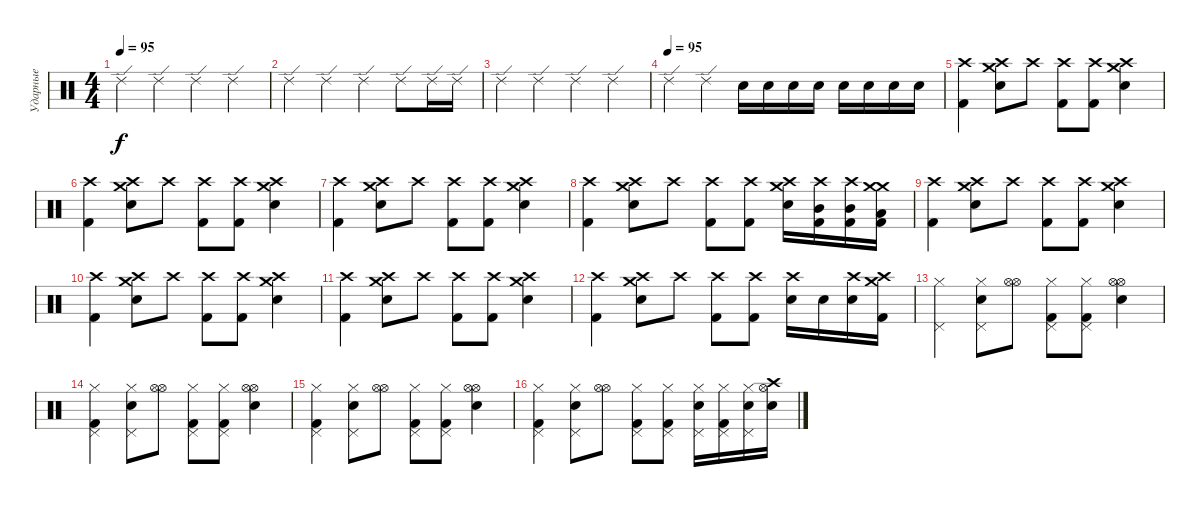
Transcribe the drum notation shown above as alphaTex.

\track ("Ударные" "Ударные") {instrument percussion}
\staff {score}
\articulation defaults
\ts (4 4)
\tempo 95
\clef neutral
\ks c "Ride (edge) 2".4{dy f} "Ride (edge) 2".4 "Ride (edge) 2".4 "Ride (edge) 2".4
|
"Ride (edge) 2".4 "Ride (edge) 2".4 "Ride (edge) 2".4 "Ride (edge) 2".8 "Ride (edge) 2".16 "Ride (edge) 2".16 |
"Ride (edge) 2".4 "Ride (edge) 2".4 "Ride (edge) 2".4 "Ride (edge) 2".4 |
\tempo (95)
"Ride (edge) 2".4 "Ride (edge) 2".4 "Electric Snare (hit)".16 "Electric Snare (hit)".16 "Electric Snare (hit)".16 "Electric Snare (hit)".16 "Electric Snare (hit)".16 "Electric Snare (hit)".16 "Electric Snare (hit)".16 "Electric Snare (hit)".16 |
("Crash high (hit)" "Kick (hit) 2").4 ("Crash high (hit)" "Crash medium (hit)" "Electric Snare (hit)").8 "Crash high (hit)".8 ("Crash high (hit)" "Kick (hit) 2").8 ("Crash high (hit)" "Kick (hit) 2").8 ("Crash high (hit)" "Crash medium (hit)" "Electric Snare (hit)").4 |
("Crash high (hit)" "Kick (hit) 2").4 ("Crash high (hit)" "Crash medium (hit)" "Electric Snare (hit)").8 "Crash high (hit)".8 ("Crash high (hit)" "Kick (hit) 2").8 ("Crash high (hit)" "Kick (hit) 2").8 ("Crash high (hit)" "Crash medium (hit)" "Electric Snare (hit)").4 |
("Crash high (hit)" "Kick (hit) 2").4 ("Crash high (hit)" "Crash medium (hit)" "Electric Snare (hit)").8 "Crash high (hit)".8 ("Crash high (hit)" "Kick (hit) 2").8 ("Crash high (hit)" "Kick (hit) 2").8 ("Crash high (hit)" "Crash medium (hit)" "Electric Snare (hit)").4 |
("Crash high (hit)" "Kick (hit) 2").4 ("Crash high (hit)" "Crash medium (hit)" "Electric Snare (hit)").8 "Crash high (hit)".8 ("Crash high (hit)" "Kick (hit) 2").8 ("Crash high (hit)" "Kick (hit) 2").8 ("Crash high (hit)" "Crash medium (hit)" "Electric Snare (hit)").16 ("Crash high (hit)" "Kick (hit) 2" "Mid Tom (hit)").16 ("Crash high (hit)" "Kick (hit) 2" "Mid Tom (hit)").16 ("Crash medium (hit)" "Crash medium (hit)" "Kick (hit) 2" "Low Tom (hit)").16 |
("Crash high (hit)" "Kick (hit) 2").4 ("Crash high (hit)" "Crash medium (hit)" "Electric Snare (hit)").8 "Crash high (hit)".8 ("Crash high (hit)" "Kick (hit) 2").8 ("Crash high (hit)" "Kick (hit) 2").8 ("Crash high (hit)" "Crash medium (hit)" "Electric Snare (hit)").4 |
("Crash high (hit)" "Kick (hit) 2").4 ("Crash high (hit)" "Crash medium (hit)" "Electric Snare (hit)").8 "Crash high (hit)".8 ("Crash high (hit)" "Kick (hit) 2").8 ("Crash high (hit)" "Kick (hit) 2").8 ("Crash high (hit)" "Crash medium (hit)" "Electric Snare (hit)").4 |
("Crash high (hit)" "Kick (hit) 2").4 ("Crash high (hit)" "Crash medium (hit)" "Electric Snare (hit)").8 "Crash high (hit)".8 ("Crash high (hit)" "Kick (hit) 2").8 ("Crash high (hit)" "Kick (hit) 2").8 ("Crash high (hit)" "Crash medium (hit)" "Electric Snare (hit)").4 |
("Crash high (hit)" "Kick (hit) 2").4 ("Crash high (hit)" "Crash medium (hit)" "Electric Snare (hit)").8 "Crash high (hit)".8 ("Crash high (hit)" "Kick (hit) 2").8 ("Crash high (hit)" "Kick (hit) 2").8 ("Crash high (hit)" "Electric Snare (hit)").16 "Electric Snare (hit)".16 ("Crash high (hit)" "Electric Snare (hit)").16 ("Crash high (hit)" "Crash medium (hit)" "Kick (hit) 2").16 |
("Pedal Hi-Hat (hit)" "Hi-Hat (closed)").4 ("Pedal Hi-Hat (hit)" "Hi-Hat (closed)" "Electric Snare (hit)").8 ("Hi-Hat (open)" "Hi-Hat (open)").8 ("Pedal Hi-Hat (hit)" "Hi-Hat (closed)" "Kick (hit) 2").8 ("Pedal Hi-Hat (hit)" "Hi-Hat (closed)" "Kick (hit) 2").8 ("Hi-Hat (open)" "Hi-Hat (open)" "Electric Snare (hit)").4 |
("Pedal Hi-Hat (hit)" "Hi-Hat (closed)" "Kick (hit) 2").4 ("Pedal Hi-Hat (hit)" "Hi-Hat (closed)" "Electric Snare (hit)").8 ("Hi-Hat (open)" "Hi-Hat (open)").8 ("Pedal Hi-Hat (hit)" "Hi-Hat (closed)" "Kick (hit) 2").8 ("Pedal Hi-Hat (hit)" "Hi-Hat (closed)" "Kick (hit) 2").8 ("Hi-Hat (open)" "Hi-Hat (open)" "Electric Snare (hit)").4 |
("Pedal Hi-Hat (hit)" "Hi-Hat (closed)" "Kick (hit) 2").4 ("Pedal Hi-Hat (hit)" "Hi-Hat (closed)" "Electric Snare (hit)").8 ("Hi-Hat (open)" "Hi-Hat (open)").8 ("Pedal Hi-Hat (hit)" "Hi-Hat (closed)" "Kick (hit) 2").8 ("Pedal Hi-Hat (hit)" "Hi-Hat (closed)" "Kick (hit) 2").8 ("Hi-Hat (open)" "Hi-Hat (open)" "Electric Snare (hit)").4 |
("Pedal Hi-Hat (hit)" "Hi-Hat (closed)" "Kick (hit) 2").4 ("Pedal Hi-Hat (hit)" "Hi-Hat (closed)" "Electric Snare (hit)").8 ("Hi-Hat (open)" "Hi-Hat (open)").8 ("Pedal Hi-Hat (hit)" "Hi-Hat (closed)" "Kick (hit) 2").8 ("Pedal Hi-Hat (hit)" "Hi-Hat (closed)" "Kick (hit) 2").8 ("Pedal Hi-Hat (hit)" "Hi-Hat (closed)" "Electric Snare (hit)").16 ("Pedal Hi-Hat (hit)" "Hi-Hat (closed)" "Kick (hit) 2").16 ("Pedal Hi-Hat (hit)" "Hi-Hat (closed)" "Electric Snare (hit)").16 ("Crash high (hit)" "Hi-Hat (open)" "Electric Snare (hit)").16
